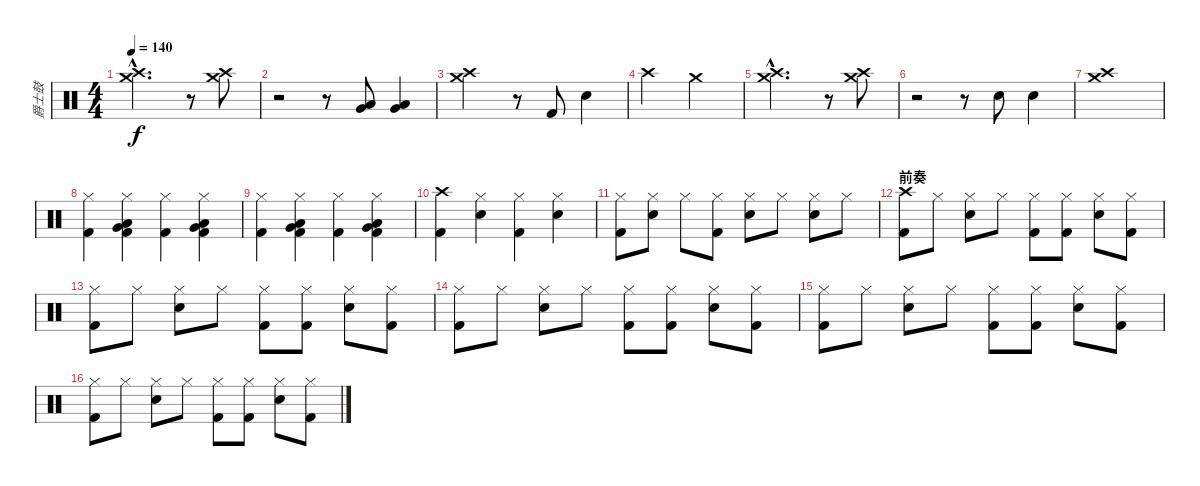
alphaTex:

\track ("爵士鼓" "爵士鼓") {instrument percussion}
\staff {score}
\articulation defaults
\ts (4 4)
\tempo 140
\clef neutral
\ks c
("Crash high (hit)"{hac} "Crash medium (hit)"{hac}).2{d dy f} r.8 ("Crash medium (hit)" "Crash high (hit)").8 |
r.2 r.8 ("Very Low Tom (hit)" "Low Tom (hit)").8 ("Low Floor Tom (hit)" "Very Low Tom (hit)").4 |
("Crash high (hit)" "Crash medium (hit)").2 r.8 "Kick (hit) 2".8 "Electric Snare (hit)".4 |
"Crash high (hit)".2 "Crash medium (hit)".2 |
("Crash high (hit)"{hac} "Crash medium (hit)"{hac}).2{d} r.8 ("Crash medium (hit)" "Crash high (hit)").8 |
r.2 r.8 "Electric Snare (hit)".8 "Electric Snare (hit)".4 |
("Crash high (hit)" "Crash medium (hit)").1 |
("Hi-Hat (closed)" "Kick (hit) 2").4 ("Hi-Hat (closed)" "Very Low Tom (hit)" "Low Floor Tom (hit)" "Kick (hit) 2").4 ("Hi-Hat (closed)" "Kick (hit) 2").4 ("Hi-Hat (closed)" "Very Low Tom (hit)" "Low Floor Tom (hit)" "Kick (hit) 2").4 |
("Hi-Hat (closed)" "Kick (hit) 2").4 ("Hi-Hat (closed)" "Very Low Tom (hit)" "Low Floor Tom (hit)" "Kick (hit) 2").4 ("Hi-Hat (closed)" "Kick (hit) 2").4 ("Hi-Hat (closed)" "Very Low Tom (hit)" "Low Floor Tom (hit)" "Kick (hit) 2").4 |
("Crash high (hit)" "Kick (hit) 2").4 ("Hi-Hat (closed)" "Electric Snare (hit)").4 ("Hi-Hat (closed)" "Kick (hit) 2").4 ("Hi-Hat (closed)" "Electric Snare (hit)").4 |
("Hi-Hat (closed)" "Kick (hit) 2").8 ("Hi-Hat (closed)" "Electric Snare (hit)").8 "Hi-Hat (closed)".8 ("Hi-Hat (closed)" "Kick (hit) 2").8 ("Hi-Hat (closed)" "Electric Snare (hit)").8 "Hi-Hat (closed)".8 ("Hi-Hat (closed)" "Electric Snare (hit)").8 "Hi-Hat (closed)".8 |
\section ("" "前奏")
("Crash high (hit)" "Kick (hit) 2").8 "Hi-Hat (closed)".8 ("Hi-Hat (closed)" "Electric Snare (hit)").8 "Hi-Hat (closed)".8 ("Hi-Hat (closed)" "Kick (hit) 2").8 ("Hi-Hat (closed)" "Kick (hit) 2").8 ("Hi-Hat (closed)" "Electric Snare (hit)").8 ("Hi-Hat (closed)" "Kick (hit) 2").8 |
("Hi-Hat (closed)" "Kick (hit) 2").8 "Hi-Hat (closed)".8 ("Hi-Hat (closed)" "Electric Snare (hit)").8 "Hi-Hat (closed)".8 ("Hi-Hat (closed)" "Kick (hit) 2").8 ("Hi-Hat (closed)" "Kick (hit) 2").8 ("Hi-Hat (closed)" "Electric Snare (hit)").8 ("Hi-Hat (closed)" "Kick (hit) 2").8 |
("Hi-Hat (closed)" "Kick (hit) 2").8 "Hi-Hat (closed)".8 ("Hi-Hat (closed)" "Electric Snare (hit)").8 "Hi-Hat (closed)".8 ("Hi-Hat (closed)" "Kick (hit) 2").8 ("Hi-Hat (closed)" "Kick (hit) 2").8 ("Hi-Hat (closed)" "Electric Snare (hit)").8 ("Hi-Hat (closed)" "Kick (hit) 2").8 |
("Hi-Hat (closed)" "Kick (hit) 2").8 "Hi-Hat (closed)".8 ("Hi-Hat (closed)" "Electric Snare (hit)").8 "Hi-Hat (closed)".8 ("Hi-Hat (closed)" "Kick (hit) 2").8 ("Hi-Hat (closed)" "Kick (hit) 2").8 ("Hi-Hat (closed)" "Electric Snare (hit)").8 ("Hi-Hat (closed)" "Kick (hit) 2").8 |
("Hi-Hat (closed)" "Kick (hit) 2").8 "Hi-Hat (closed)".8 ("Hi-Hat (closed)" "Electric Snare (hit)").8 "Hi-Hat (closed)".8 ("Hi-Hat (closed)" "Kick (hit) 2").8 ("Hi-Hat (closed)" "Kick (hit) 2").8 ("Hi-Hat (closed)" "Electric Snare (hit)").8 ("Hi-Hat (closed)" "Kick (hit) 2").8
